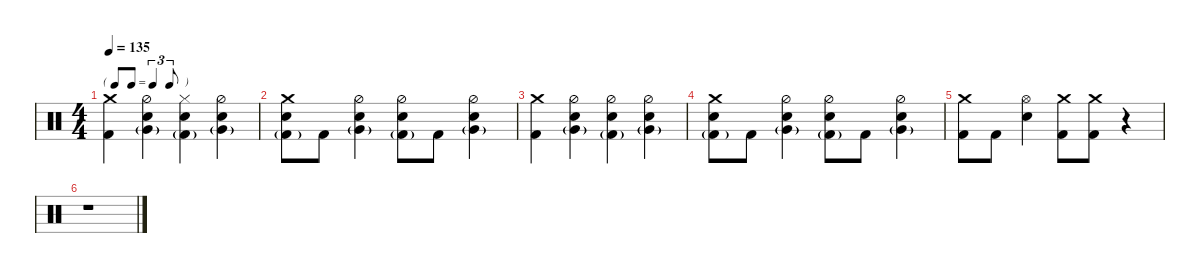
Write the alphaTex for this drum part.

\defaultSystemsLayout 4
\hideDynamics
\bracketExtendMode nobrackets
\singleTrackTrackNamePolicy hidden
\multiTrackTrackNamePolicy hidden
\firstSystemTrackNameMode fullname
\firstSystemTrackNameOrientation horizontal
\otherSystemsTrackNameOrientation horizontal
\track ("Drum" "Drums") {instrument percussion}
\staff {score}
\articulation defaults
\ts (4 4)
\tf triplet8th
\scale
0.25
\tempo 135
\accidentals auto
\clef neutral
\ottava regular
\simile none
\ks c
("Kick (hit) 2" "Crash medium (hit)").4{dy f beam Down} ("Snare (hit) 2" "Very Low Tom (hit)"{g} "Hi-Hat (half)").4{beam Down} ("Snare (hit) 2" "Hi-Hat (closed)" "Kick (hit) 2"{g}).4{beam Down} ("Snare (hit) 2" "Hi-Hat (half)" "Very Low Tom (hit)"{g}).4{beam Down} |
\scale
0.25 ("Snare (hit) 2" "Kick (hit) 2"{g} "Crash medium (hit)").8{beam Down} "Kick (hit) 2".8{beam Down} ("Snare (hit) 2" "Very Low Tom (hit)"{g} "Hi-Hat (half)").4{beam Down} ("Snare (hit) 2" "Hi-Hat (half)" "Kick (hit) 2"{g}).8{beam Down} "Kick (hit) 2".8{beam Down} ("Snare (hit) 2" "Hi-Hat (half)" "Very Low Tom (hit)"{g}).4{beam Down} |
\scale
0.25 ("Kick (hit) 2" "Crash medium (hit)").4{beam Down} ("Snare (hit) 2" "Very Low Tom (hit)"{g} "Hi-Hat (half)").4{beam Down} ("Snare (hit) 2" "Hi-Hat (half)" "Kick (hit) 2"{g}).4{beam Down} ("Snare (hit) 2" "Hi-Hat (half)" "Very Low Tom (hit)"{g}).4{beam Down} |
\scale
0.25 ("Snare (hit) 2" "Kick (hit) 2"{g} "Crash medium (hit)").8{beam Down} "Kick (hit) 2".8{beam Down} ("Snare (hit) 2" "Very Low Tom (hit)"{g} "Hi-Hat (half)").4{beam Down} ("Snare (hit) 2" "Hi-Hat (half)" "Kick (hit) 2"{g}).8{beam Down} "Kick (hit) 2".8{beam Down} ("Snare (hit) 2" "Hi-Hat (half)" "Very Low Tom (hit)"{g}).4{beam Down} |
\scale
0.71066 ("Kick (hit) 2" "Crash medium (hit)").8{beam Down} "Kick (hit) 2".8{beam Down} ("Snare (hit) 2" "Hi-Hat (open)").4{beam Down} ("Kick (hit) 2" "Crash medium (hit)").8{beam Down} ("Kick (hit) 2" "Crash medium (hit)").8{beam Down} r.4{beam Down} |
\scale
0.272727
\scale
0.28934 r.1{beam Down}
